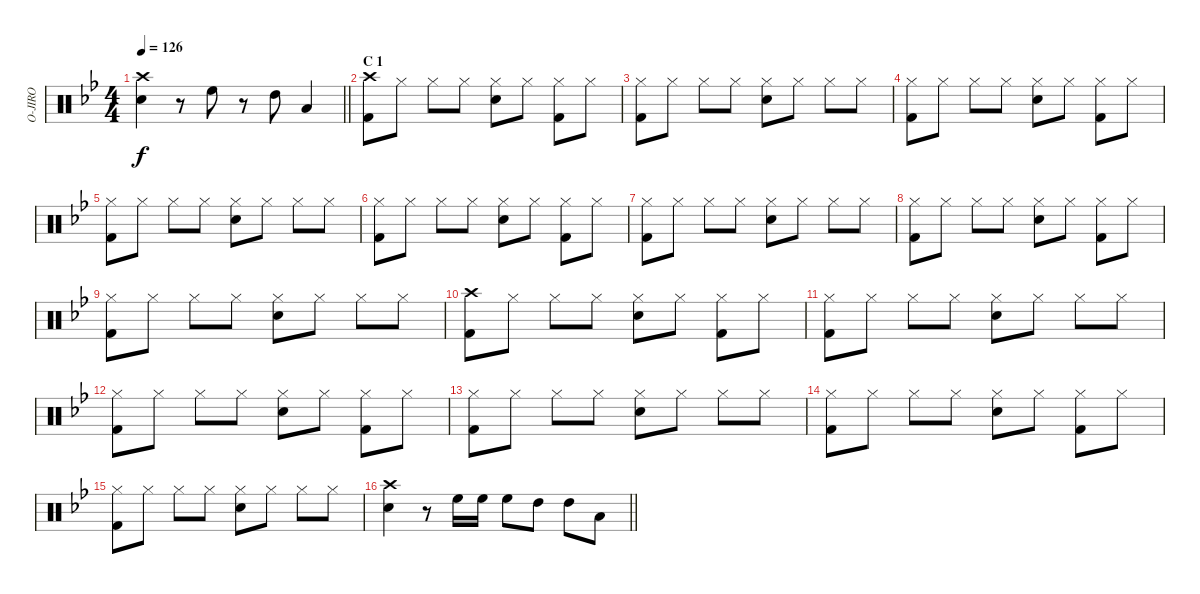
\track ("O-JIRO" "O-JIRO") {instrument percussion}
\staff {score}
\articulation defaults
\ts (4 4)
\tempo 126
\clef neutral
\barLineRight lightlight
\ks bb
("Crash high (hit)" "Snare (hit) 2").4{dy f} r.8 "High Floor Tom (hit)".8 r.8 "High Tom (hit)".8 "Low Tom (hit)".4 |
\section ("" "C 1")
("Crash high (hit)" "Kick (hit) 2").8 "Hi-Hat (closed)".8 "Hi-Hat (closed)".8 "Hi-Hat (closed)".8 ("Hi-Hat (closed)" "Snare (hit) 2").8 "Hi-Hat (closed)".8 ("Hi-Hat (closed)" "Kick (hit) 2").8 "Hi-Hat (closed)".8 |
("Hi-Hat (closed)" "Kick (hit) 2").8 "Hi-Hat (closed)".8 "Hi-Hat (closed)".8 "Hi-Hat (closed)".8 ("Hi-Hat (closed)" "Snare (hit) 2").8 "Hi-Hat (closed)".8 "Hi-Hat (closed)".8 "Hi-Hat (closed)".8 |
("Hi-Hat (closed)" "Kick (hit) 2").8 "Hi-Hat (closed)".8 "Hi-Hat (closed)".8 "Hi-Hat (closed)".8 ("Hi-Hat (closed)" "Snare (hit) 2").8 "Hi-Hat (closed)".8 ("Hi-Hat (closed)" "Kick (hit) 2").8 "Hi-Hat (closed)".8 |
("Hi-Hat (closed)" "Kick (hit) 2").8 "Hi-Hat (closed)".8 "Hi-Hat (closed)".8 "Hi-Hat (closed)".8 ("Hi-Hat (closed)" "Snare (hit) 2").8 "Hi-Hat (closed)".8 "Hi-Hat (closed)".8 "Hi-Hat (closed)".8 |
("Hi-Hat (closed)" "Kick (hit) 2").8 "Hi-Hat (closed)".8 "Hi-Hat (closed)".8 "Hi-Hat (closed)".8 ("Hi-Hat (closed)" "Snare (hit) 2").8 "Hi-Hat (closed)".8 ("Hi-Hat (closed)" "Kick (hit) 2").8 "Hi-Hat (closed)".8 |
("Hi-Hat (closed)" "Kick (hit) 2").8 "Hi-Hat (closed)".8 "Hi-Hat (closed)".8 "Hi-Hat (closed)".8 ("Hi-Hat (closed)" "Snare (hit) 2").8 "Hi-Hat (closed)".8 "Hi-Hat (closed)".8 "Hi-Hat (closed)".8 |
("Hi-Hat (closed)" "Kick (hit) 2").8 "Hi-Hat (closed)".8 "Hi-Hat (closed)".8 "Hi-Hat (closed)".8 ("Hi-Hat (closed)" "Snare (hit) 2").8 "Hi-Hat (closed)".8 ("Hi-Hat (closed)" "Kick (hit) 2").8 "Hi-Hat (closed)".8 |
("Hi-Hat (closed)" "Kick (hit) 2").8 "Hi-Hat (closed)".8 "Hi-Hat (closed)".8 "Hi-Hat (closed)".8 ("Hi-Hat (closed)" "Snare (hit) 2").8 "Hi-Hat (closed)".8 "Hi-Hat (closed)".8 "Hi-Hat (closed)".8 |
("Crash high (hit)" "Kick (hit) 2").8 "Hi-Hat (closed)".8 "Hi-Hat (closed)".8 "Hi-Hat (closed)".8 ("Hi-Hat (closed)" "Snare (hit) 2").8 "Hi-Hat (closed)".8 ("Hi-Hat (closed)" "Kick (hit) 2").8 "Hi-Hat (closed)".8 |
("Hi-Hat (closed)" "Kick (hit) 2").8 "Hi-Hat (closed)".8 "Hi-Hat (closed)".8 "Hi-Hat (closed)".8 ("Hi-Hat (closed)" "Snare (hit) 2").8 "Hi-Hat (closed)".8 "Hi-Hat (closed)".8 "Hi-Hat (closed)".8 |
("Hi-Hat (closed)" "Kick (hit) 2").8 "Hi-Hat (closed)".8 "Hi-Hat (closed)".8 "Hi-Hat (closed)".8 ("Hi-Hat (closed)" "Snare (hit) 2").8 "Hi-Hat (closed)".8 ("Hi-Hat (closed)" "Kick (hit) 2").8 "Hi-Hat (closed)".8 |
("Hi-Hat (closed)" "Kick (hit) 2").8 "Hi-Hat (closed)".8 "Hi-Hat (closed)".8 "Hi-Hat (closed)".8 ("Hi-Hat (closed)" "Snare (hit) 2").8 "Hi-Hat (closed)".8 "Hi-Hat (closed)".8 "Hi-Hat (closed)".8 |
("Hi-Hat (closed)" "Kick (hit) 2").8 "Hi-Hat (closed)".8 "Hi-Hat (closed)".8 "Hi-Hat (closed)".8 ("Hi-Hat (closed)" "Snare (hit) 2").8 "Hi-Hat (closed)".8 ("Hi-Hat (closed)" "Kick (hit) 2").8 "Hi-Hat (closed)".8 |
("Hi-Hat (closed)" "Kick (hit) 2").8 "Hi-Hat (closed)".8 "Hi-Hat (closed)".8 "Hi-Hat (closed)".8 ("Hi-Hat (closed)" "Snare (hit) 2").8 "Hi-Hat (closed)".8 "Hi-Hat (closed)".8 "Hi-Hat (closed)".8 |
\barLineRight lightlight
("Crash high (hit)" "Snare (hit) 2").4 r.8 "High Floor Tom (hit)".16 "High Floor Tom (hit)".16 "High Floor Tom (hit)".8 "High Tom (hit)".8 "High Tom (hit)".8 "Low Tom (hit)".8
